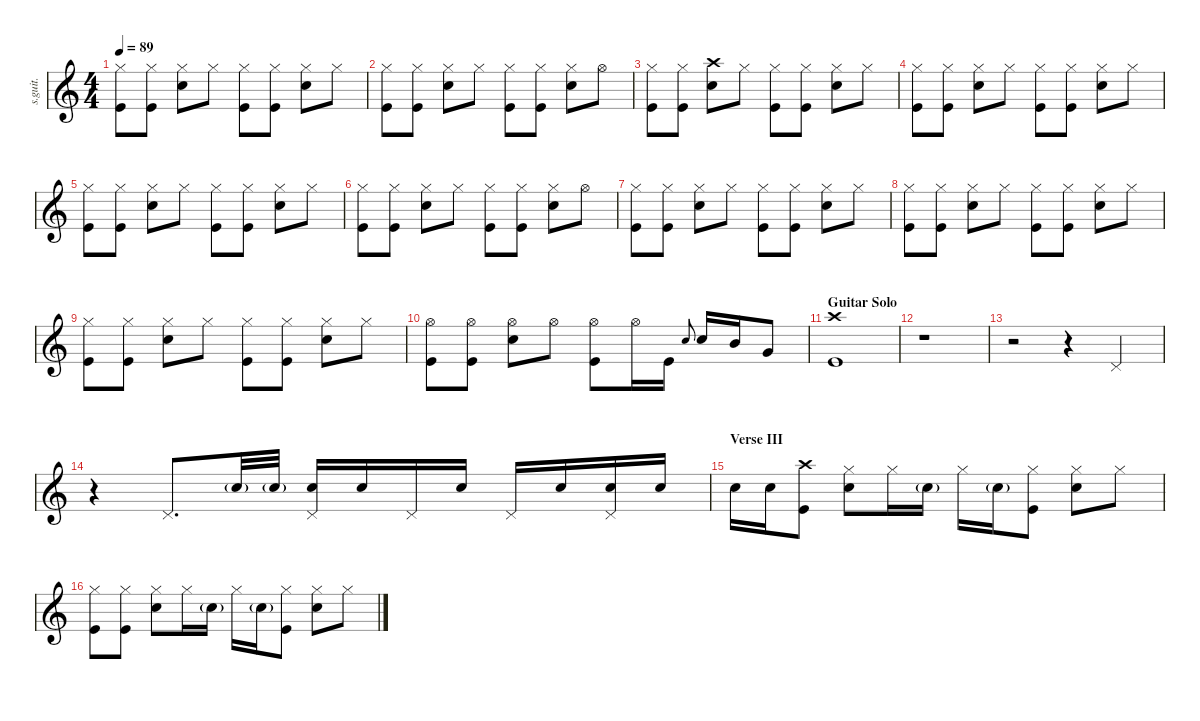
\defaultSystemsLayout 4
\hideDynamics
\bracketExtendMode nobrackets
\track ("Chad Smith" "s.guit.") {instrument percussion}
\staff {score}
\articulation defaults
\ts (4 4)
\tempo 89
\clef g2
\ks c
("Hi-Hat (closed)" "Kick (hit)").8{lyrics (0 "") lyrics (1 "") lyrics (2 "") lyrics (3 "") lyrics (4 "") dy f} ("Hi-Hat (closed)" "Kick (hit)").8{lyrics (0 "") lyrics (1 "") lyrics (2 "") lyrics (3 "") lyrics (4 "")} ("Hi-Hat (closed)" "Snare (hit) 2").8{lyrics (0 "") lyrics (1 "") lyrics (2 "") lyrics (3 "") lyrics (4 "")} "Hi-Hat (closed)".8{lyrics (0 "") lyrics (1 "") lyrics (2 "") lyrics (3 "") lyrics (4 "")} ("Hi-Hat (closed)" "Kick (hit)").8{lyrics (0 "") lyrics (1 "") lyrics (2 "") lyrics (3 "") lyrics (4 "")} ("Hi-Hat (closed)" "Kick (hit)").8{lyrics (0 "") lyrics (1 "") lyrics (2 "") lyrics (3 "") lyrics (4 "")} ("Hi-Hat (closed)" "Snare (hit) 2").8{lyrics (0 "") lyrics (1 "") lyrics (2 "") lyrics (3 "") lyrics (4 "")} "Hi-Hat (closed)".8{lyrics (0 "") lyrics (1 "") lyrics (2 "") lyrics (3 "") lyrics (4 "")} |
("Hi-Hat (closed)" "Kick (hit)").8{lyrics (0 "") lyrics (1 "") lyrics (2 "") lyrics (3 "") lyrics (4 "")} ("Hi-Hat (closed)" "Kick (hit)").8{lyrics (0 "") lyrics (1 "") lyrics (2 "") lyrics (3 "") lyrics (4 "")} ("Hi-Hat (closed)" "Snare (hit) 2").8{lyrics (0 "") lyrics (1 "") lyrics (2 "") lyrics (3 "") lyrics (4 "")} "Hi-Hat (closed)".8{lyrics (0 "") lyrics (1 "") lyrics (2 "") lyrics (3 "") lyrics (4 "")} ("Hi-Hat (closed)" "Kick (hit)").8{lyrics (0 "") lyrics (1 "") lyrics (2 "") lyrics (3 "") lyrics (4 "")} ("Hi-Hat (closed)" "Kick (hit)").8{lyrics (0 "") lyrics (1 "") lyrics (2 "") lyrics (3 "") lyrics (4 "")} ("Hi-Hat (closed)" "Snare (hit) 2").8{lyrics (0 "") lyrics (1 "") lyrics (2 "") lyrics (3 "") lyrics (4 "")} "Hi-Hat (open)".8{lyrics (0 "") lyrics (1 "") lyrics (2 "") lyrics (3 "") lyrics (4 "")} |
("Hi-Hat (closed)" "Kick (hit)").8{lyrics (0 "") lyrics (1 "") lyrics (2 "") lyrics (3 "") lyrics (4 "")} ("Hi-Hat (closed)" "Kick (hit)").8{lyrics (0 "") lyrics (1 "") lyrics (2 "") lyrics (3 "") lyrics (4 "")} ("Crash high (hit)" "Snare (hit) 2").8{lyrics (0 "") lyrics (1 "") lyrics (2 "") lyrics (3 "") lyrics (4 "")} "Hi-Hat (closed)".8{lyrics (0 "") lyrics (1 "") lyrics (2 "") lyrics (3 "") lyrics (4 "")} ("Hi-Hat (closed)" "Kick (hit)").8{lyrics (0 "") lyrics (1 "") lyrics (2 "") lyrics (3 "") lyrics (4 "")} ("Hi-Hat (closed)" "Kick (hit)").8{lyrics (0 "") lyrics (1 "") lyrics (2 "") lyrics (3 "") lyrics (4 "")} ("Hi-Hat (closed)" "Snare (hit) 2").8{lyrics (0 "") lyrics (1 "") lyrics (2 "") lyrics (3 "") lyrics (4 "")} "Hi-Hat (closed)".8{lyrics (0 "") lyrics (1 "") lyrics (2 "") lyrics (3 "") lyrics (4 "")} |
("Hi-Hat (closed)" "Kick (hit)").8{lyrics (0 "") lyrics (1 "") lyrics (2 "") lyrics (3 "") lyrics (4 "")} ("Hi-Hat (closed)" "Kick (hit)").8{lyrics (0 "") lyrics (1 "") lyrics (2 "") lyrics (3 "") lyrics (4 "")} ("Hi-Hat (closed)" "Snare (hit) 2").8{lyrics (0 "") lyrics (1 "") lyrics (2 "") lyrics (3 "") lyrics (4 "")} "Hi-Hat (closed)".8{lyrics (0 "") lyrics (1 "") lyrics (2 "") lyrics (3 "") lyrics (4 "")} ("Hi-Hat (closed)" "Kick (hit)").8{lyrics (0 "") lyrics (1 "") lyrics (2 "") lyrics (3 "") lyrics (4 "")} ("Hi-Hat (closed)" "Kick (hit)").8{lyrics (0 "") lyrics (1 "") lyrics (2 "") lyrics (3 "") lyrics (4 "")} ("Hi-Hat (closed)" "Snare (hit) 2").8{lyrics (0 "") lyrics (1 "") lyrics (2 "") lyrics (3 "") lyrics (4 "")} "Hi-Hat (closed)".8{lyrics (0 "") lyrics (1 "") lyrics (2 "") lyrics (3 "") lyrics (4 "")} |
("Hi-Hat (closed)" "Kick (hit)").8{lyrics (0 "") lyrics (1 "") lyrics (2 "") lyrics (3 "") lyrics (4 "")} ("Hi-Hat (closed)" "Kick (hit)").8{lyrics (0 "") lyrics (1 "") lyrics (2 "") lyrics (3 "") lyrics (4 "")} ("Hi-Hat (closed)" "Snare (hit) 2").8{lyrics (0 "") lyrics (1 "") lyrics (2 "") lyrics (3 "") lyrics (4 "")} "Hi-Hat (closed)".8{lyrics (0 "") lyrics (1 "") lyrics (2 "") lyrics (3 "") lyrics (4 "")} ("Hi-Hat (closed)" "Kick (hit)").8{lyrics (0 "") lyrics (1 "") lyrics (2 "") lyrics (3 "") lyrics (4 "")} ("Hi-Hat (closed)" "Kick (hit)").8{lyrics (0 "") lyrics (1 "") lyrics (2 "") lyrics (3 "") lyrics (4 "")} ("Hi-Hat (closed)" "Snare (hit) 2").8{lyrics (0 "") lyrics (1 "") lyrics (2 "") lyrics (3 "") lyrics (4 "")} "Hi-Hat (closed)".8{lyrics (0 "") lyrics (1 "") lyrics (2 "") lyrics (3 "") lyrics (4 "")} |
("Hi-Hat (closed)" "Kick (hit)").8{lyrics (0 "") lyrics (1 "") lyrics (2 "") lyrics (3 "") lyrics (4 "")} ("Hi-Hat (closed)" "Kick (hit)").8{lyrics (0 "") lyrics (1 "") lyrics (2 "") lyrics (3 "") lyrics (4 "")} ("Hi-Hat (closed)" "Snare (hit) 2").8{lyrics (0 "") lyrics (1 "") lyrics (2 "") lyrics (3 "") lyrics (4 "")} "Hi-Hat (closed)".8{lyrics (0 "") lyrics (1 "") lyrics (2 "") lyrics (3 "") lyrics (4 "")} ("Hi-Hat (closed)" "Kick (hit)").8{lyrics (0 "") lyrics (1 "") lyrics (2 "") lyrics (3 "") lyrics (4 "")} ("Hi-Hat (closed)" "Kick (hit)").8{lyrics (0 "") lyrics (1 "") lyrics (2 "") lyrics (3 "") lyrics (4 "")} ("Hi-Hat (closed)" "Snare (hit) 2").8{lyrics (0 "") lyrics (1 "") lyrics (2 "") lyrics (3 "") lyrics (4 "")} "Hi-Hat (open)".8{lyrics (0 "") lyrics (1 "") lyrics (2 "") lyrics (3 "") lyrics (4 "")} |
("Hi-Hat (closed)" "Kick (hit)").8{lyrics (0 "") lyrics (1 "") lyrics (2 "") lyrics (3 "") lyrics (4 "")} ("Hi-Hat (closed)" "Kick (hit)").8{lyrics (0 "") lyrics (1 "") lyrics (2 "") lyrics (3 "") lyrics (4 "")} ("Hi-Hat (closed)" "Snare (hit) 2").8{lyrics (0 "") lyrics (1 "") lyrics (2 "") lyrics (3 "") lyrics (4 "")} "Hi-Hat (closed)".8{lyrics (0 "") lyrics (1 "") lyrics (2 "") lyrics (3 "") lyrics (4 "")} ("Hi-Hat (closed)" "Kick (hit)").8{lyrics (0 "") lyrics (1 "") lyrics (2 "") lyrics (3 "") lyrics (4 "")} ("Hi-Hat (closed)" "Kick (hit)").8{lyrics (0 "") lyrics (1 "") lyrics (2 "") lyrics (3 "") lyrics (4 "")} ("Hi-Hat (closed)" "Snare (hit) 2").8{lyrics (0 "") lyrics (1 "") lyrics (2 "") lyrics (3 "") lyrics (4 "")} "Hi-Hat (closed)".8{lyrics (0 "") lyrics (1 "") lyrics (2 "") lyrics (3 "") lyrics (4 "")} |
("Hi-Hat (closed)" "Kick (hit)").8{lyrics (0 "") lyrics (1 "") lyrics (2 "") lyrics (3 "") lyrics (4 "")} ("Hi-Hat (closed)" "Kick (hit)").8{lyrics (0 "") lyrics (1 "") lyrics (2 "") lyrics (3 "") lyrics (4 "")} ("Hi-Hat (closed)" "Snare (hit) 2").8{lyrics (0 "") lyrics (1 "") lyrics (2 "") lyrics (3 "") lyrics (4 "")} "Hi-Hat (closed)".8{lyrics (0 "") lyrics (1 "") lyrics (2 "") lyrics (3 "") lyrics (4 "")} ("Hi-Hat (closed)" "Kick (hit)").8{lyrics (0 "") lyrics (1 "") lyrics (2 "") lyrics (3 "") lyrics (4 "")} ("Hi-Hat (closed)" "Kick (hit)").8{lyrics (0 "") lyrics (1 "") lyrics (2 "") lyrics (3 "") lyrics (4 "")} ("Hi-Hat (closed)" "Snare (hit) 2").8{lyrics (0 "") lyrics (1 "") lyrics (2 "") lyrics (3 "") lyrics (4 "")} "Hi-Hat (closed)".8{lyrics (0 "") lyrics (1 "") lyrics (2 "") lyrics (3 "") lyrics (4 "")} |
("Hi-Hat (closed)" "Kick (hit)").8{lyrics (0 "") lyrics (1 "") lyrics (2 "") lyrics (3 "") lyrics (4 "")} ("Hi-Hat (closed)" "Kick (hit)").8{lyrics (0 "") lyrics (1 "") lyrics (2 "") lyrics (3 "") lyrics (4 "")} ("Hi-Hat (closed)" "Snare (hit) 2").8{lyrics (0 "") lyrics (1 "") lyrics (2 "") lyrics (3 "") lyrics (4 "")} "Hi-Hat (closed)".8{lyrics (0 "") lyrics (1 "") lyrics (2 "") lyrics (3 "") lyrics (4 "")} ("Hi-Hat (closed)" "Kick (hit)").8{lyrics (0 "") lyrics (1 "") lyrics (2 "") lyrics (3 "") lyrics (4 "")} ("Hi-Hat (closed)" "Kick (hit)").8{lyrics (0 "") lyrics (1 "") lyrics (2 "") lyrics (3 "") lyrics (4 "")} ("Hi-Hat (closed)" "Snare (hit) 2").8{lyrics (0 "") lyrics (1 "") lyrics (2 "") lyrics (3 "") lyrics (4 "")} "Hi-Hat (closed)".8{lyrics (0 "") lyrics (1 "") lyrics (2 "") lyrics (3 "") lyrics (4 "")} |
("Hi-Hat (open)" "Kick (hit)").8{lyrics (0 "") lyrics (1 "") lyrics (2 "") lyrics (3 "") lyrics (4 "")} ("Hi-Hat (open)" "Kick (hit)").8{lyrics (0 "") lyrics (1 "") lyrics (2 "") lyrics (3 "") lyrics (4 "")} ("Hi-Hat (open)" "Snare (hit) 2").8{lyrics (0 "") lyrics (1 "") lyrics (2 "") lyrics (3 "") lyrics (4 "")} "Hi-Hat (open)".8{lyrics (0 "") lyrics (1 "") lyrics (2 "") lyrics (3 "") lyrics (4 "")} ("Hi-Hat (open)" "Kick (hit)").8{lyrics (0 "") lyrics (1 "") lyrics (2 "") lyrics (3 "") lyrics (4 "")} "Hi-Hat (open)".16{lyrics (0 "") lyrics (1 "") lyrics (2 "") lyrics (3 "") lyrics (4 "")} "Kick (hit)".16{lyrics (0 "") lyrics (1 "") lyrics (2 "") lyrics (3 "") lyrics (4 "")} "Snare (hit) 2".8{lyrics (0 "") lyrics (1 "") lyrics (2 "") lyrics (3 "") lyrics (4 "") gr onbeat} "Snare (hit) 2".16{lyrics (0 "") lyrics (1 "") lyrics (2 "") lyrics (3 "") lyrics (4 "")} "Mid Tom (hit)".16{lyrics (0 "") lyrics (1 "") lyrics (2 "") lyrics (3 "") lyrics (4 "") dy fff} "Very Low Tom (hit)".8{lyrics (0 "") lyrics (1 "") lyrics (2 "") lyrics (3 "") lyrics (4 "")} |
\section ("" "Guitar Solo")
("Crash high (hit)" "Kick (hit)").1{lyrics (0 "") lyrics (1 "") lyrics (2 "") lyrics (3 "") lyrics (4 "") dy f} |
r.1 |
r.2 r.4 "Pedal Hi-Hat (hit)".4{lyrics (0 "") lyrics (1 "") lyrics (2 "") lyrics (3 "") lyrics (4 "")} |
r.4 "Pedal Hi-Hat (hit)".8{d lyrics (0 "") lyrics (1 "") lyrics (2 "") lyrics (3 "") lyrics (4 "")} "Snare (hit) 2"{g}.32{lyrics (0 "") lyrics (1 "") lyrics (2 "") lyrics (3 "") lyrics (4 "") dy ppp} "Snare (hit) 2"{g}.32{lyrics (0 "") lyrics (1 "") lyrics (2 "") lyrics (3 "") lyrics (4 "")} ("Pedal Hi-Hat (hit)" "Snare (hit) 2").16{lyrics (0 "") lyrics (1 "") lyrics (2 "") lyrics (3 "") lyrics (4 "") dy f} "Snare (hit) 2".16{lyrics (0 "") lyrics (1 "") lyrics (2 "") lyrics (3 "") lyrics (4 "")} "Pedal Hi-Hat (hit)".16{lyrics (0 "") lyrics (1 "") lyrics (2 "") lyrics (3 "") lyrics (4 "")} "Snare (hit) 2".16{lyrics (0 "") lyrics (1 "") lyrics (2 "") lyrics (3 "") lyrics (4 "")} "Pedal Hi-Hat (hit)".16{lyrics (0 "") lyrics (1 "") lyrics (2 "") lyrics (3 "") lyrics (4 "")} "Snare (hit) 2".16{lyrics (0 "") lyrics (1 "") lyrics (2 "") lyrics (3 "") lyrics (4 "")} ("Pedal Hi-Hat (hit)" "Snare (hit) 2").16{lyrics (0 "") lyrics (1 "") lyrics (2 "") lyrics (3 "") lyrics (4 "")} "Snare (hit) 2".16{lyrics (0 "") lyrics (1 "") lyrics (2 "") lyrics (3 "") lyrics (4 "")} |
\section ("" "Verse III")
"Snare (hit) 2".16{lyrics (0 "") lyrics (1 "") lyrics (2 "") lyrics (3 "") lyrics (4 "")} "Snare (hit) 2".16{lyrics (0 "") lyrics (1 "") lyrics (2 "") lyrics (3 "") lyrics (4 "")} ("Crash high (hit)" "Kick (hit)").8{lyrics (0 "") lyrics (1 "") lyrics (2 "") lyrics (3 "") lyrics (4 "")} ("Hi-Hat (closed)" "Snare (hit) 2").8{lyrics (0 "") lyrics (1 "") lyrics (2 "") lyrics (3 "") lyrics (4 "")} "Hi-Hat (closed)".16{lyrics (0 "") lyrics (1 "") lyrics (2 "") lyrics (3 "") lyrics (4 "")} "Snare (hit) 2"{g}.16{lyrics (0 "") lyrics (1 "") lyrics (2 "") lyrics (3 "") lyrics (4 "") dy ppp} "Hi-Hat (closed)".16{lyrics (0 "") lyrics (1 "") lyrics (2 "") lyrics (3 "") lyrics (4 "") dy fff} "Snare (hit) 2"{g}.16{lyrics (0 "") lyrics (1 "") lyrics (2 "") lyrics (3 "") lyrics (4 "") dy ppp} ("Hi-Hat (closed)" "Kick (hit)").8{lyrics (0 "") lyrics (1 "") lyrics (2 "") lyrics (3 "") lyrics (4 "") dy f} ("Hi-Hat (closed)" "Snare (hit) 2").8{lyrics (0 "") lyrics (1 "") lyrics (2 "") lyrics (3 "") lyrics (4 "")} "Hi-Hat (closed)".8{lyrics (0 "") lyrics (1 "") lyrics (2 "") lyrics (3 "") lyrics (4 "")} |
("Hi-Hat (closed)" "Kick (hit)").8{lyrics (0 "") lyrics (1 "") lyrics (2 "") lyrics (3 "") lyrics (4 "")} ("Hi-Hat (closed)" "Kick (hit)").8{lyrics (0 "") lyrics (1 "") lyrics (2 "") lyrics (3 "") lyrics (4 "")} ("Hi-Hat (closed)" "Snare (hit) 2").8{lyrics (0 "") lyrics (1 "") lyrics (2 "") lyrics (3 "") lyrics (4 "")} "Hi-Hat (closed)".16{lyrics (0 "") lyrics (1 "") lyrics (2 "") lyrics (3 "") lyrics (4 "")} "Snare (hit) 2"{g}.16{lyrics (0 "") lyrics (1 "") lyrics (2 "") lyrics (3 "") lyrics (4 "") dy ppp} "Hi-Hat (closed)".16{lyrics (0 "") lyrics (1 "") lyrics (2 "") lyrics (3 "") lyrics (4 "") dy fff} "Snare (hit) 2"{g}.16{lyrics (0 "") lyrics (1 "") lyrics (2 "") lyrics (3 "") lyrics (4 "") dy ppp} ("Hi-Hat (closed)" "Kick (hit)").8{lyrics (0 "") lyrics (1 "") lyrics (2 "") lyrics (3 "") lyrics (4 "") dy f} ("Hi-Hat (closed)" "Snare (hit) 2").8{lyrics (0 "") lyrics (1 "") lyrics (2 "") lyrics (3 "") lyrics (4 "")} "Hi-Hat (closed)".8{lyrics (0 "") lyrics (1 "") lyrics (2 "") lyrics (3 "") lyrics (4 "")}
